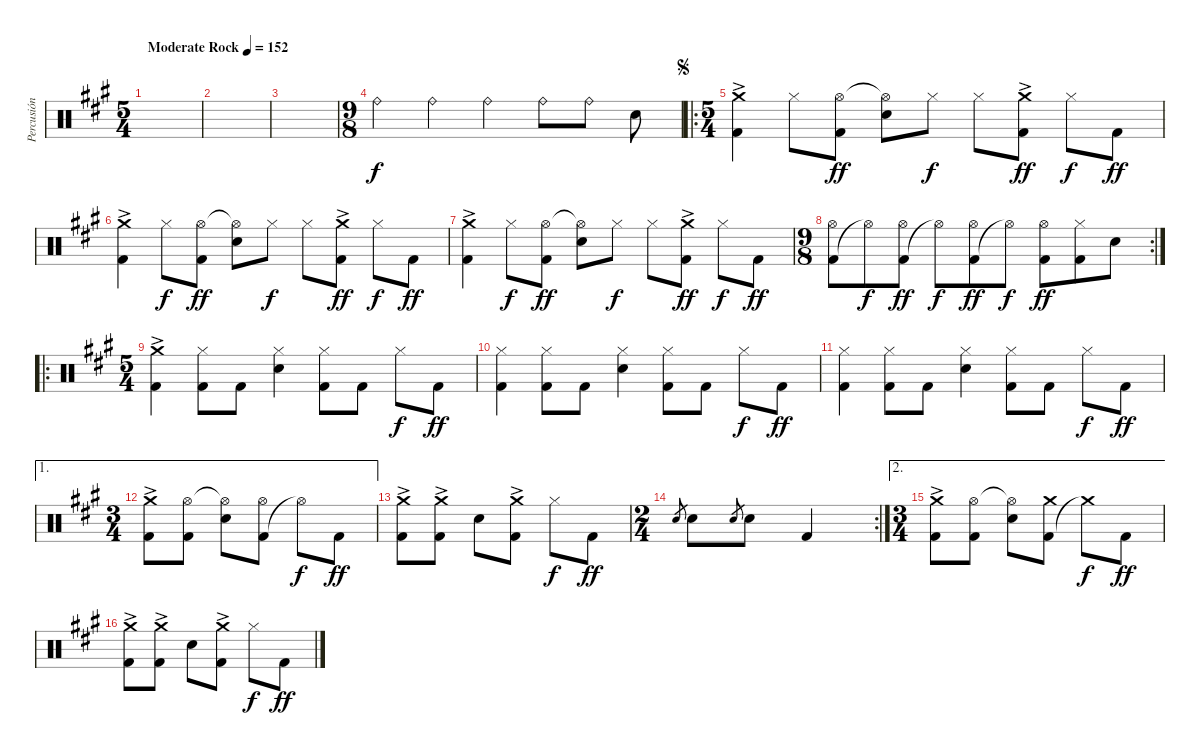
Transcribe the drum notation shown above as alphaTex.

\track ("Percusión" "Percusión") {instrument percussion}
\staff {score}
\articulation defaults
\ts (5 4)
\tempo (152 "Moderate Rock")
\clef neutral
\ks a
|
|
|
\ts (9 8)
"Ride (bell)".4 "Ride (bell)".4 "Ride (bell)".4 "Ride (bell)".8 "Ride (bell)".8{beam split} "Electric Snare (hit)".8 |
\ro
\ts (5 4)
\jump segno
("Kick (hit) 2" "Crash medium (hit)"{ac}).4 "Hi-Hat (closed)".8{dy f} ("Kick (hit) 2" "Hi-Hat (open)").8{dy ff} ("Electric Snare (hit)" "Hi-Hat (open)"{t}).8 "Hi-Hat (closed)".8{dy f} "Hi-Hat (closed)".8 ("Kick (hit) 2" "Crash medium (hit)"{ac}).8{dy ff} "Hi-Hat (closed)".8{dy f} "Kick (hit) 2".8{dy ff} |
("Kick (hit) 2" "Crash medium (hit)"{ac}).4 "Hi-Hat (closed)".8{dy f} ("Kick (hit) 2" "Hi-Hat (open)").8{dy ff} ("Electric Snare (hit)" "Hi-Hat (open)"{t}).8 "Hi-Hat (closed)".8{dy f} "Hi-Hat (closed)".8 ("Kick (hit) 2" "Crash medium (hit)"{ac}).8{dy ff} "Hi-Hat (closed)".8{dy f} "Kick (hit) 2".8{dy ff} |
("Kick (hit) 2" "Crash medium (hit)"{ac}).4 "Hi-Hat (closed)".8{dy f} ("Kick (hit) 2" "Hi-Hat (open)").8{dy ff} ("Electric Snare (hit)" "Hi-Hat (open)"{t}).8 "Hi-Hat (closed)".8{dy f} "Hi-Hat (closed)".8 ("Kick (hit) 2" "Crash medium (hit)"{ac}).8{dy ff} "Hi-Hat (closed)".8{dy f} "Kick (hit) 2".8{dy ff} |
\rc 2
\ts (9 8)
("Kick (hit) 2" "Hi-Hat (open)").8 "Hi-Hat (open)"{t}.8{dy f} ("Kick (hit) 2" "Hi-Hat (open)").8{dy ff} "Hi-Hat (open)"{t}.8{dy f} ("Kick (hit) 2" "Hi-Hat (open)").8{dy ff} "Hi-Hat (open)"{t}.8{dy f} ("Kick (hit) 2" "Hi-Hat (open)").8{dy ff} ("Kick (hit) 2" "Hi-Hat (closed)").8 "Electric Snare (hit)".8 |
\ro
\ts (5 4)
("Kick (hit) 2" "Crash medium (hit)"{ac}).4 ("Kick (hit) 2" "Hi-Hat (closed)").8 "Kick (hit) 2".8 ("Electric Snare (hit)" "Hi-Hat (closed)").4 ("Kick (hit) 2" "Hi-Hat (closed)").8 "Kick (hit) 2".8 "Hi-Hat (closed)".8{dy f} "Kick (hit) 2".8{dy ff} |
("Kick (hit) 2" "Hi-Hat (closed)").4 ("Kick (hit) 2" "Hi-Hat (closed)").8 "Kick (hit) 2".8 ("Electric Snare (hit)" "Hi-Hat (closed)").4 ("Kick (hit) 2" "Hi-Hat (closed)").8 "Kick (hit) 2".8 "Hi-Hat (closed)".8{dy f} "Kick (hit) 2".8{dy ff} |
("Kick (hit) 2" "Hi-Hat (closed)").4 ("Kick (hit) 2" "Hi-Hat (closed)").8 "Kick (hit) 2".8 ("Electric Snare (hit)" "Hi-Hat (closed)").4 ("Kick (hit) 2" "Hi-Hat (closed)").8 "Kick (hit) 2".8 "Hi-Hat (closed)".8{dy f} "Kick (hit) 2".8{dy ff} |
\ae 1
\ts (3 4)
("Kick (hit) 2" "Crash medium (hit)"{ac}).8 ("Kick (hit) 2" "Hi-Hat (open)").8 ("Electric Snare (hit)" "Hi-Hat (open)"{t}).8 ("Kick (hit) 2" "Hi-Hat (open)").8 "Hi-Hat (open)"{t}.8{dy f} "Kick (hit) 2".8{dy ff} |
("Kick (hit) 2" "Crash medium (hit)"{ac}).8 ("Kick (hit) 2" "Crash medium (hit)"{ac}).8 "Electric Snare (hit)".8 ("Kick (hit) 2" "Crash medium (hit)"{ac}).8 "Hi-Hat (closed)".8{dy f} "Kick (hit) 2".8{dy ff} |
\rc 2
\ts (2 4)
"Electric Snare (hit)".8{gr} "Electric Snare (hit)".8 "Electric Snare (hit)".8{gr} "Electric Snare (hit)".8 "Kick (hit) 2".4 |
\ae 2
\ts (3 4)
("Kick (hit) 2" "Crash medium (hit)"{ac}).8 ("Kick (hit) 2" "Hi-Hat (open)").8 ("Electric Snare (hit)" "Hi-Hat (open)"{t}).8 ("Kick (hit) 2" "Crash medium (hit)").8 "Crash medium (hit)"{t}.8{dy f} "Kick (hit) 2".8{dy ff} |
("Kick (hit) 2" "Crash medium (hit)"{ac}).8 ("Kick (hit) 2" "Crash medium (hit)"{ac}).8 "Electric Snare (hit)".8 ("Kick (hit) 2" "Crash medium (hit)"{ac}).8 "Hi-Hat (closed)".8{dy f} "Kick (hit) 2".8{dy ff}
